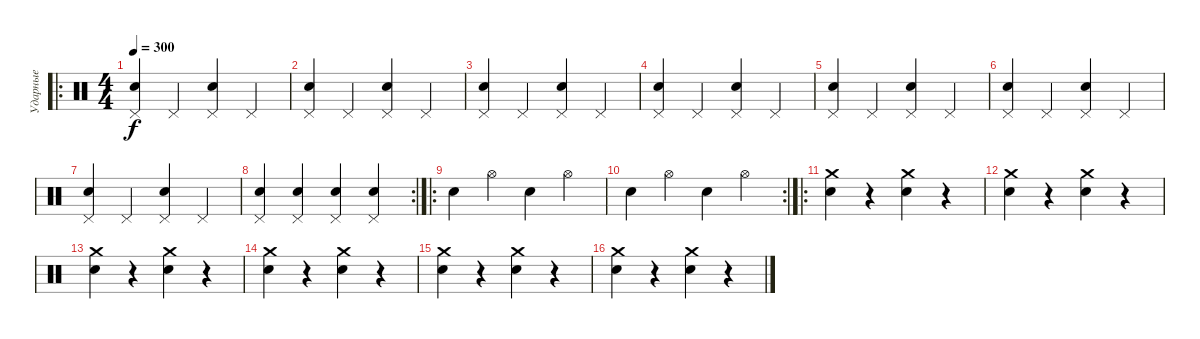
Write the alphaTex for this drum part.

\track ("Ударные" "Ударные") {instrument percussion}
\staff {score}
\articulation defaults
\ro
\ts (4 4)
\tempo 300
\clef neutral
\ks c
("Snare (hit) 2" "Pedal Hi-Hat (hit)").4{dy f} "Pedal Hi-Hat (hit)".4 ("Snare (hit) 2" "Pedal Hi-Hat (hit)").4 "Pedal Hi-Hat (hit)".4 |
("Snare (hit) 2" "Pedal Hi-Hat (hit)").4 "Pedal Hi-Hat (hit)".4 ("Snare (hit) 2" "Pedal Hi-Hat (hit)").4 "Pedal Hi-Hat (hit)".4 |
("Snare (hit) 2" "Pedal Hi-Hat (hit)").4 "Pedal Hi-Hat (hit)".4 ("Snare (hit) 2" "Pedal Hi-Hat (hit)").4 "Pedal Hi-Hat (hit)".4 |
("Snare (hit) 2" "Pedal Hi-Hat (hit)").4 "Pedal Hi-Hat (hit)".4 ("Snare (hit) 2" "Pedal Hi-Hat (hit)").4 "Pedal Hi-Hat (hit)".4 |
("Snare (hit) 2" "Pedal Hi-Hat (hit)").4 "Pedal Hi-Hat (hit)".4 ("Snare (hit) 2" "Pedal Hi-Hat (hit)").4 "Pedal Hi-Hat (hit)".4 |
("Snare (hit) 2" "Pedal Hi-Hat (hit)").4 "Pedal Hi-Hat (hit)".4 ("Snare (hit) 2" "Pedal Hi-Hat (hit)").4 "Pedal Hi-Hat (hit)".4 |
("Snare (hit) 2" "Pedal Hi-Hat (hit)").4 "Pedal Hi-Hat (hit)".4 ("Snare (hit) 2" "Pedal Hi-Hat (hit)").4 "Pedal Hi-Hat (hit)".4 |
\rc 2
("Snare (hit) 2" "Pedal Hi-Hat (hit)").4 ("Snare (hit) 2" "Pedal Hi-Hat (hit)").4 ("Snare (hit) 2" "Pedal Hi-Hat (hit)").4 ("Snare (hit) 2" "Pedal Hi-Hat (hit)").4 |
\ro "Snare (hit) 2".4 "Hi-Hat (open)".4 "Snare (hit) 2".4 "Hi-Hat (open)".4
|
\rc 2 "Snare (hit) 2".4 "Hi-Hat (open)".4 "Snare (hit) 2".4 "Hi-Hat (open)".4
|
\ro
("Crash medium (hit)" "Electric Snare (hit)").4 r.4 ("Crash medium (hit)" "Electric Snare (hit)").4 r.4 |
("Crash medium (hit)" "Electric Snare (hit)").4 r.4 ("Crash medium (hit)" "Electric Snare (hit)").4 r.4 |
("Crash medium (hit)" "Electric Snare (hit)").4 r.4 ("Crash medium (hit)" "Electric Snare (hit)").4 r.4 |
("Crash medium (hit)" "Electric Snare (hit)").4 r.4 ("Crash medium (hit)" "Electric Snare (hit)").4 r.4 |
("Crash medium (hit)" "Electric Snare (hit)").4 r.4 ("Crash medium (hit)" "Electric Snare (hit)").4 r.4 |
("Crash medium (hit)" "Electric Snare (hit)").4 r.4 ("Crash medium (hit)" "Electric Snare (hit)").4 r.4
